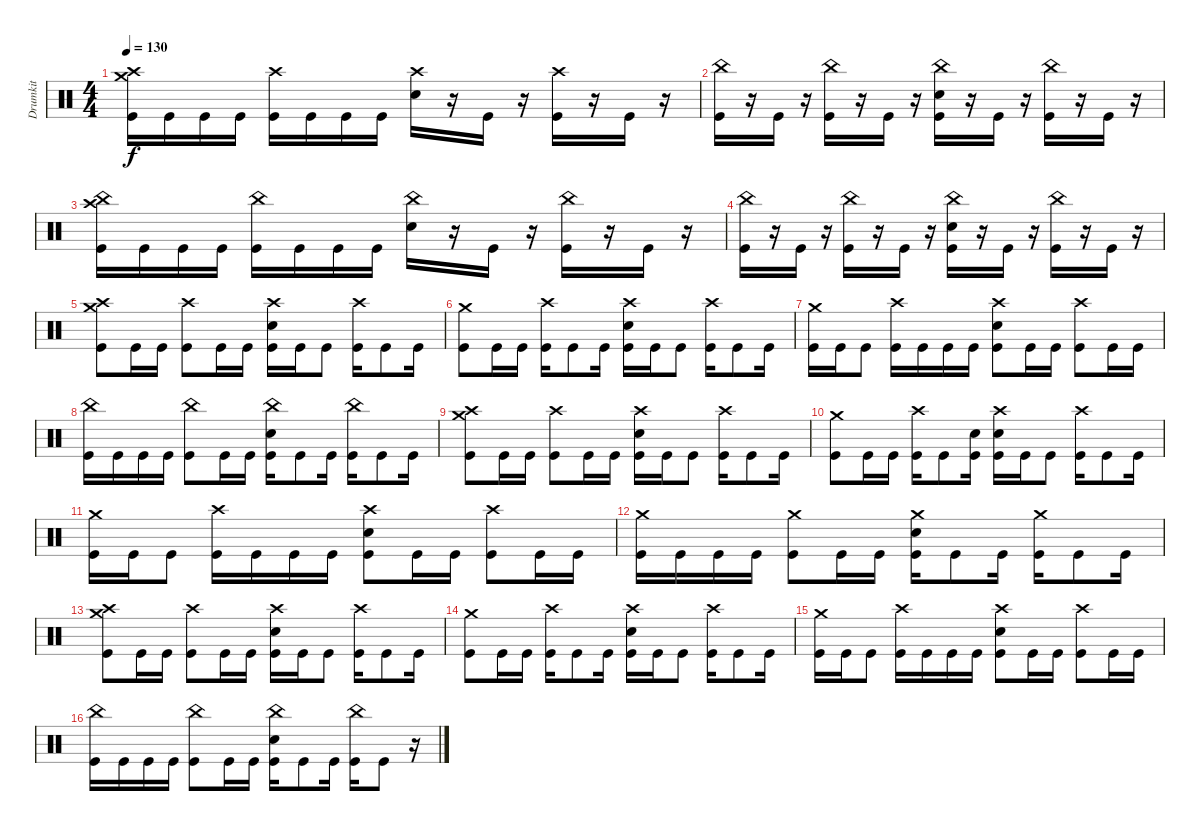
\track ("Drumkit" "Drumkit") {instrument percussion}
\staff {score}
\articulation defaults
\ts (4 4)
\tempo 130
\clef neutral
\ks c
("Crash medium (hit)" "Crash high (hit)" "Kick (hit)").16{dy f} "Kick (hit)".16 "Kick (hit)".16 "Kick (hit)".16 ("Crash high (hit)" "Kick (hit)").16 "Kick (hit)".16 "Kick (hit)".16 "Kick (hit)".16 ("Crash high (hit)" "Snare (hit) 2").16 r.16 "Kick (hit)".16 r.16 ("Crash high (hit)" "Kick (hit)").16 r.16 "Kick (hit)".16 r.16 |
("China (hit)" "Kick (hit)").16 r.16 "Kick (hit)".16 r.16 ("China (hit)" "Kick (hit)").16 r.16 "Kick (hit)".16 r.16 ("China (hit)" "Snare (hit) 2" "Kick (hit)").16 r.16 "Kick (hit)".16 r.16 ("China (hit)" "Kick (hit)").16 r.16 "Kick (hit)".16 r.16 |
("China (hit)" "Crash high (hit)" "Kick (hit)").16 "Kick (hit)".16 "Kick (hit)".16 "Kick (hit)".16 ("China (hit)" "Kick (hit)").16 "Kick (hit)".16 "Kick (hit)".16 "Kick (hit)".16 ("China (hit)" "Snare (hit) 2").16 r.16 "Kick (hit)".16 r.16 ("China (hit)" "Kick (hit)").16 r.16 "Kick (hit)".16 r.16 |
("China (hit)" "Kick (hit)").16 r.16 "Kick (hit)".16 r.16 ("China (hit)" "Kick (hit)").16 r.16 "Kick (hit)".16 r.16 ("China (hit)" "Snare (hit) 2" "Kick (hit)").16 r.16 "Kick (hit)".16 r.16 ("China (hit)" "Kick (hit)").16 r.16 "Kick (hit)".16 r.16 |
("Crash medium (hit)" "Crash high (hit)" "Kick (hit)").8 "Kick (hit)".16 "Kick (hit)".16 ("Crash high (hit)" "Kick (hit)").8 "Kick (hit)".16 "Kick (hit)".16 ("Crash high (hit)" "Snare (hit) 2" "Kick (hit)").16 "Kick (hit)".16 "Kick (hit)".8 ("Crash high (hit)" "Kick (hit)").16 "Kick (hit)".8 "Kick (hit)".16 |
("Crash medium (hit)" "Kick (hit)").8 "Kick (hit)".16 "Kick (hit)".16 ("Crash high (hit)" "Kick (hit)").16 "Kick (hit)".8 "Kick (hit)".16 ("Crash high (hit)" "Snare (hit) 2" "Kick (hit)").16 "Kick (hit)".16 "Kick (hit)".8 ("Crash high (hit)" "Kick (hit)").16 "Kick (hit)".8 "Kick (hit)".16 |
("Crash medium (hit)" "Kick (hit)").16 "Kick (hit)".16 "Kick (hit)".8 ("Crash high (hit)" "Kick (hit)").16 "Kick (hit)".16 "Kick (hit)".16 "Kick (hit)".16 ("Crash high (hit)" "Snare (hit) 2" "Kick (hit)").8 "Kick (hit)".16 "Kick (hit)".16 ("Crash high (hit)" "Kick (hit)").8 "Kick (hit)".16 "Kick (hit)".16 |
("China (hit)" "Kick (hit)").16 "Kick (hit)".16 "Kick (hit)".16 "Kick (hit)".16 ("China (hit)" "Kick (hit)").8 "Kick (hit)".16 "Kick (hit)".16 ("China (hit)" "Snare (hit) 2" "Kick (hit)").16 "Kick (hit)".8 "Kick (hit)".16 ("China (hit)" "Kick (hit)").16 "Kick (hit)".8 "Kick (hit)".16 |
("Crash medium (hit)" "Crash high (hit)" "Kick (hit)").8 "Kick (hit)".16 "Kick (hit)".16 ("Crash high (hit)" "Kick (hit)").8 "Kick (hit)".16 "Kick (hit)".16 ("Crash high (hit)" "Snare (hit) 2" "Kick (hit)").16 "Kick (hit)".16 "Kick (hit)".8 ("Crash high (hit)" "Kick (hit)").16 "Kick (hit)".8 "Kick (hit)".16 |
("Crash medium (hit)" "Kick (hit)").8 "Kick (hit)".16 "Kick (hit)".16 ("Crash high (hit)" "Kick (hit)").16 "Kick (hit)".8 ("Snare (hit) 2" "Kick (hit)").16 ("Crash high (hit)" "Snare (hit) 2" "Kick (hit)").16 "Kick (hit)".16 "Kick (hit)".8 ("Crash high (hit)" "Kick (hit)").16 "Kick (hit)".8 "Kick (hit)".16 |
("Crash medium (hit)" "Kick (hit)").16 "Kick (hit)".16 "Kick (hit)".8 ("Crash high (hit)" "Kick (hit)").16 "Kick (hit)".16 "Kick (hit)".16 "Kick (hit)".16 ("Crash high (hit)" "Snare (hit) 2" "Kick (hit)").8 "Kick (hit)".16 "Kick (hit)".16 ("Crash high (hit)" "Kick (hit)").8 "Kick (hit)".16 "Kick (hit)".16 |
("Crash medium (hit)" "Kick (hit)").16 "Kick (hit)".16 "Kick (hit)".16 "Kick (hit)".16 ("Crash medium (hit)" "Kick (hit)").8 "Kick (hit)".16 "Kick (hit)".16 ("Crash medium (hit)" "Snare (hit) 2" "Kick (hit)").16 "Kick (hit)".8 "Kick (hit)".16 ("Crash medium (hit)" "Kick (hit)").16 "Kick (hit)".8 "Kick (hit)".16 |
("Crash medium (hit)" "Crash high (hit)" "Kick (hit)").8 "Kick (hit)".16 "Kick (hit)".16 ("Crash high (hit)" "Kick (hit)").8 "Kick (hit)".16 "Kick (hit)".16 ("Crash high (hit)" "Snare (hit) 2" "Kick (hit)").16 "Kick (hit)".16 "Kick (hit)".8 ("Crash high (hit)" "Kick (hit)").16 "Kick (hit)".8 "Kick (hit)".16 |
("Crash medium (hit)" "Kick (hit)").8 "Kick (hit)".16 "Kick (hit)".16 ("Crash high (hit)" "Kick (hit)").16 "Kick (hit)".8 "Kick (hit)".16 ("Crash high (hit)" "Snare (hit) 2" "Kick (hit)").16 "Kick (hit)".16 "Kick (hit)".8 ("Crash high (hit)" "Kick (hit)").16 "Kick (hit)".8 "Kick (hit)".16 |
("Crash medium (hit)" "Kick (hit)").16 "Kick (hit)".16 "Kick (hit)".8 ("Crash high (hit)" "Kick (hit)").16 "Kick (hit)".16 "Kick (hit)".16 "Kick (hit)".16 ("Crash high (hit)" "Snare (hit) 2" "Kick (hit)").8 "Kick (hit)".16 "Kick (hit)".16 ("Crash high (hit)" "Kick (hit)").8 "Kick (hit)".16 "Kick (hit)".16 |
("China (hit)" "Kick (hit)").16 "Kick (hit)".16 "Kick (hit)".16 "Kick (hit)".16 ("China (hit)" "Kick (hit)").8 "Kick (hit)".16 "Kick (hit)".16 ("China (hit)" "Snare (hit) 2" "Kick (hit)").16 "Kick (hit)".8 "Kick (hit)".16 ("China (hit)" "Kick (hit)").16 "Kick (hit)".8 r.16
